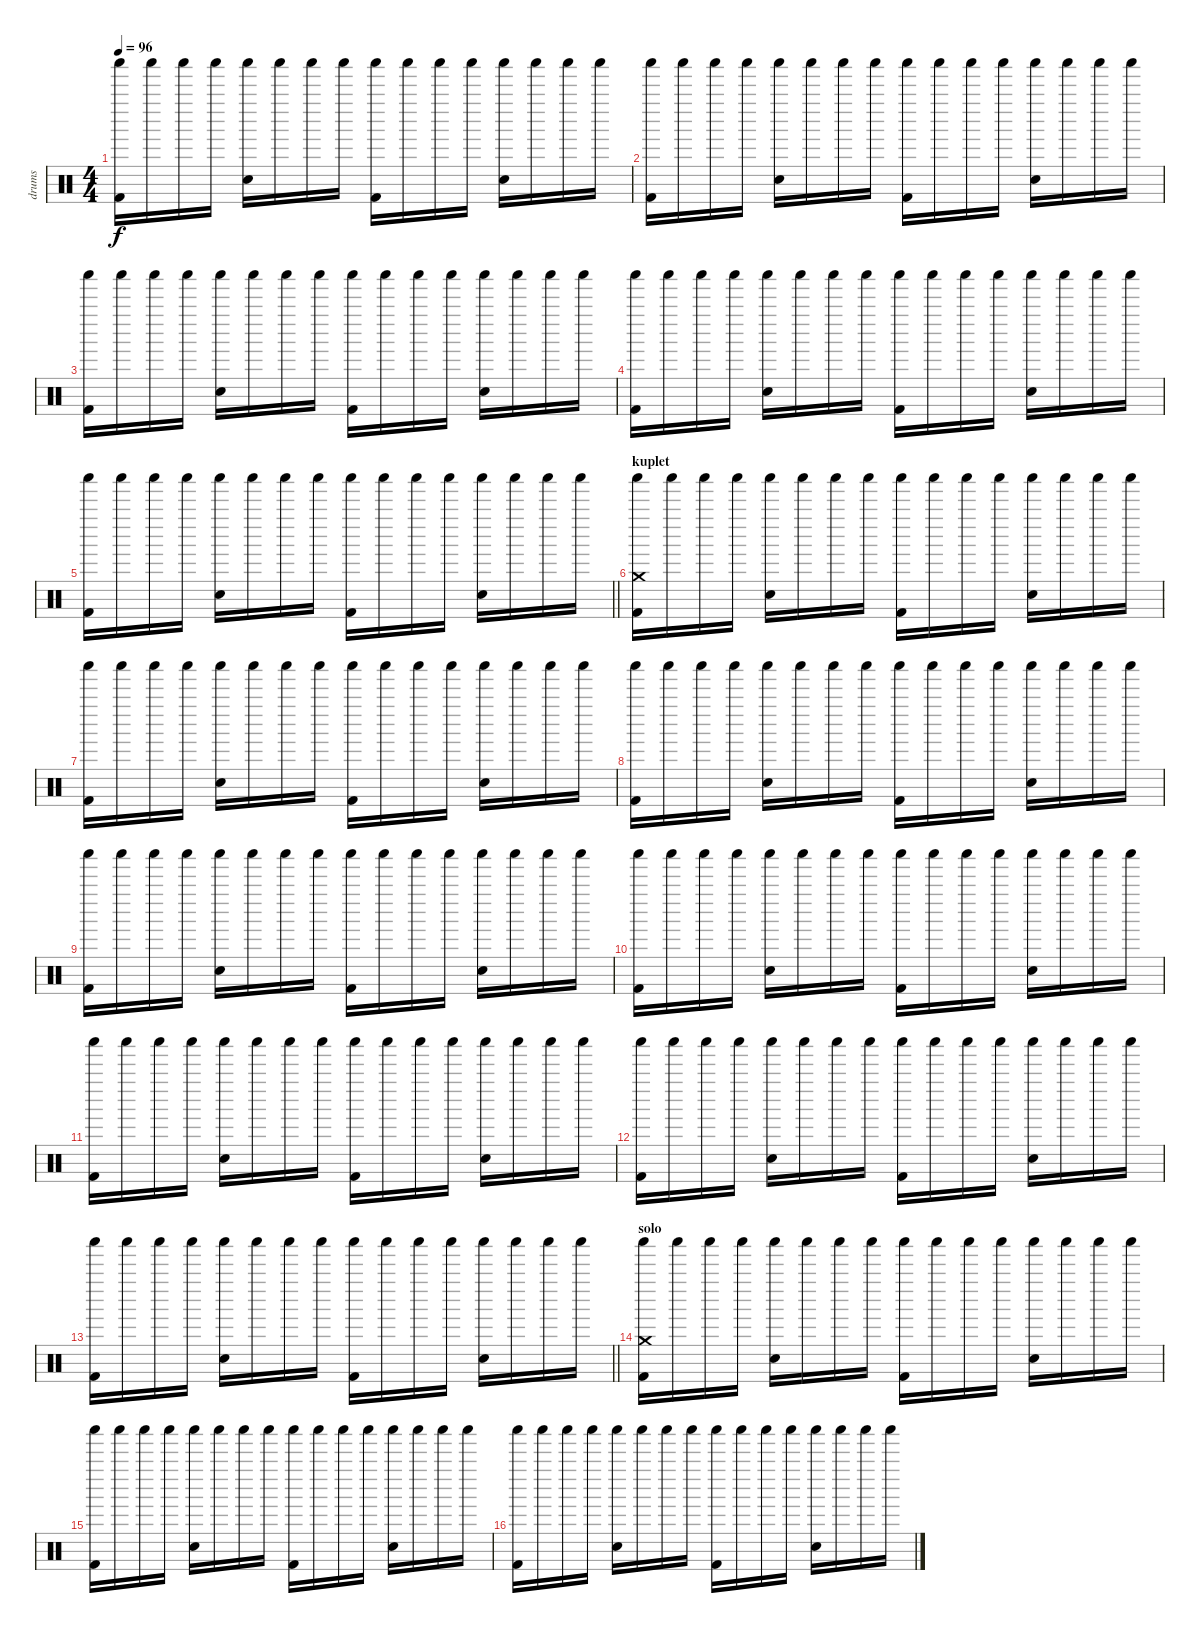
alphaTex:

\track ("drums" "drums") {instrument percussion}
\staff {score}
\articulation defaults
\ts (4 4)
\tempo 96
\clef neutral
\ks c
("Shaker (hit)" "Kick (hit) 2").16{dy f} "Shaker (hit)".16 "Shaker (hit)".16 "Shaker (hit)".16 ("Shaker (hit)" "Electric Snare (hit)").16 "Shaker (hit)".16 "Shaker (hit)".16 "Shaker (hit)".16 ("Shaker (hit)" "Kick (hit) 2").16 "Shaker (hit)".16 "Shaker (hit)".16 "Shaker (hit)".16 ("Shaker (hit)" "Electric Snare (hit)").16 "Shaker (hit)".16 "Shaker (hit)".16 "Shaker (hit)".16 |
("Shaker (hit)" "Kick (hit) 2").16 "Shaker (hit)".16 "Shaker (hit)".16 "Shaker (hit)".16 ("Shaker (hit)" "Electric Snare (hit)").16 "Shaker (hit)".16 "Shaker (hit)".16 "Shaker (hit)".16 ("Shaker (hit)" "Kick (hit) 2").16 "Shaker (hit)".16 "Shaker (hit)".16 "Shaker (hit)".16 ("Shaker (hit)" "Electric Snare (hit)").16 "Shaker (hit)".16 "Shaker (hit)".16 "Shaker (hit)".16 |
("Shaker (hit)" "Kick (hit) 2").16 "Shaker (hit)".16 "Shaker (hit)".16 "Shaker (hit)".16 ("Shaker (hit)" "Electric Snare (hit)").16 "Shaker (hit)".16 "Shaker (hit)".16 "Shaker (hit)".16 ("Shaker (hit)" "Kick (hit) 2").16 "Shaker (hit)".16 "Shaker (hit)".16 "Shaker (hit)".16 ("Shaker (hit)" "Electric Snare (hit)").16 "Shaker (hit)".16 "Shaker (hit)".16 "Shaker (hit)".16 |
("Shaker (hit)" "Kick (hit) 2").16 "Shaker (hit)".16 "Shaker (hit)".16 "Shaker (hit)".16 ("Shaker (hit)" "Electric Snare (hit)").16 "Shaker (hit)".16 "Shaker (hit)".16 "Shaker (hit)".16 ("Shaker (hit)" "Kick (hit) 2").16 "Shaker (hit)".16 "Shaker (hit)".16 "Shaker (hit)".16 ("Shaker (hit)" "Electric Snare (hit)").16 "Shaker (hit)".16 "Shaker (hit)".16 "Shaker (hit)".16 |
\barLineRight lightlight
("Shaker (hit)" "Kick (hit) 2").16 "Shaker (hit)".16 "Shaker (hit)".16 "Shaker (hit)".16 ("Shaker (hit)" "Electric Snare (hit)").16 "Shaker (hit)".16 "Shaker (hit)".16 "Shaker (hit)".16 ("Shaker (hit)" "Kick (hit) 2").16 "Shaker (hit)".16 "Shaker (hit)".16 "Shaker (hit)".16 ("Shaker (hit)" "Electric Snare (hit)").16 "Shaker (hit)".16 "Shaker (hit)".16 "Shaker (hit)".16 |
\section ("" "kuplet")
("Shaker (hit)" "Kick (hit) 2" "Crash medium (hit)").16 "Shaker (hit)".16 "Shaker (hit)".16 "Shaker (hit)".16 ("Shaker (hit)" "Electric Snare (hit)").16 "Shaker (hit)".16 "Shaker (hit)".16 "Shaker (hit)".16 ("Shaker (hit)" "Kick (hit) 2").16 "Shaker (hit)".16 "Shaker (hit)".16 "Shaker (hit)".16 ("Shaker (hit)" "Snare (hit) 2").16 "Shaker (hit)".16 "Shaker (hit)".16 "Shaker (hit)".16 |
("Shaker (hit)" "Kick (hit) 2").16 "Shaker (hit)".16 "Shaker (hit)".16 "Shaker (hit)".16 ("Shaker (hit)" "Electric Snare (hit)").16 "Shaker (hit)".16 "Shaker (hit)".16 "Shaker (hit)".16 ("Shaker (hit)" "Kick (hit) 2").16 "Shaker (hit)".16 "Shaker (hit)".16 "Shaker (hit)".16 ("Shaker (hit)" "Electric Snare (hit)").16 "Shaker (hit)".16 "Shaker (hit)".16 "Shaker (hit)".16 |
("Shaker (hit)" "Kick (hit) 2").16 "Shaker (hit)".16 "Shaker (hit)".16 "Shaker (hit)".16 ("Shaker (hit)" "Electric Snare (hit)").16 "Shaker (hit)".16 "Shaker (hit)".16 "Shaker (hit)".16 ("Shaker (hit)" "Kick (hit) 2").16 "Shaker (hit)".16 "Shaker (hit)".16 "Shaker (hit)".16 ("Shaker (hit)" "Electric Snare (hit)").16 "Shaker (hit)".16 "Shaker (hit)".16 "Shaker (hit)".16 |
("Shaker (hit)" "Kick (hit) 2").16 "Shaker (hit)".16 "Shaker (hit)".16 "Shaker (hit)".16 ("Shaker (hit)" "Electric Snare (hit)").16 "Shaker (hit)".16 "Shaker (hit)".16 "Shaker (hit)".16 ("Shaker (hit)" "Kick (hit) 2").16 "Shaker (hit)".16 "Shaker (hit)".16 "Shaker (hit)".16 ("Shaker (hit)" "Electric Snare (hit)").16 "Shaker (hit)".16 "Shaker (hit)".16 "Shaker (hit)".16 |
("Shaker (hit)" "Kick (hit) 2").16 "Shaker (hit)".16 "Shaker (hit)".16 "Shaker (hit)".16 ("Shaker (hit)" "Electric Snare (hit)").16 "Shaker (hit)".16 "Shaker (hit)".16 "Shaker (hit)".16 ("Shaker (hit)" "Kick (hit) 2").16 "Shaker (hit)".16 "Shaker (hit)".16 "Shaker (hit)".16 ("Shaker (hit)" "Electric Snare (hit)").16 "Shaker (hit)".16 "Shaker (hit)".16 "Shaker (hit)".16 |
("Shaker (hit)" "Kick (hit) 2").16 "Shaker (hit)".16 "Shaker (hit)".16 "Shaker (hit)".16 ("Shaker (hit)" "Electric Snare (hit)").16 "Shaker (hit)".16 "Shaker (hit)".16 "Shaker (hit)".16 ("Shaker (hit)" "Kick (hit) 2").16 "Shaker (hit)".16 "Shaker (hit)".16 "Shaker (hit)".16 ("Shaker (hit)" "Electric Snare (hit)").16 "Shaker (hit)".16 "Shaker (hit)".16 "Shaker (hit)".16 |
("Shaker (hit)" "Kick (hit) 2").16 "Shaker (hit)".16 "Shaker (hit)".16 "Shaker (hit)".16 ("Shaker (hit)" "Electric Snare (hit)").16 "Shaker (hit)".16 "Shaker (hit)".16 "Shaker (hit)".16 ("Shaker (hit)" "Kick (hit) 2").16 "Shaker (hit)".16 "Shaker (hit)".16 "Shaker (hit)".16 ("Shaker (hit)" "Electric Snare (hit)").16 "Shaker (hit)".16 "Shaker (hit)".16 "Shaker (hit)".16 |
\barLineRight lightlight
("Shaker (hit)" "Kick (hit) 2").16 "Shaker (hit)".16 "Shaker (hit)".16 "Shaker (hit)".16 ("Shaker (hit)" "Electric Snare (hit)").16 "Shaker (hit)".16 "Shaker (hit)".16 "Shaker (hit)".16 ("Shaker (hit)" "Kick (hit) 2").16 "Shaker (hit)".16 "Shaker (hit)".16 "Shaker (hit)".16 ("Shaker (hit)" "Electric Snare (hit)").16 "Shaker (hit)".16 "Shaker (hit)".16 "Shaker (hit)".16 |
\section ("" "solo")
("Shaker (hit)" "Kick (hit) 2" "Crash medium (hit)").16 "Shaker (hit)".16 "Shaker (hit)".16 "Shaker (hit)".16 ("Shaker (hit)" "Electric Snare (hit)").16 "Shaker (hit)".16 "Shaker (hit)".16 "Shaker (hit)".16 ("Shaker (hit)" "Kick (hit) 2").16 "Shaker (hit)".16 "Shaker (hit)".16 "Shaker (hit)".16 ("Shaker (hit)" "Snare (hit) 2").16 "Shaker (hit)".16 "Shaker (hit)".16 "Shaker (hit)".16 |
("Shaker (hit)" "Kick (hit) 2").16 "Shaker (hit)".16 "Shaker (hit)".16 "Shaker (hit)".16 ("Shaker (hit)" "Electric Snare (hit)").16 "Shaker (hit)".16 "Shaker (hit)".16 "Shaker (hit)".16 ("Shaker (hit)" "Kick (hit) 2").16 "Shaker (hit)".16 "Shaker (hit)".16 "Shaker (hit)".16 ("Shaker (hit)" "Electric Snare (hit)").16 "Shaker (hit)".16 "Shaker (hit)".16 "Shaker (hit)".16 |
("Shaker (hit)" "Kick (hit) 2").16 "Shaker (hit)".16 "Shaker (hit)".16 "Shaker (hit)".16 ("Shaker (hit)" "Electric Snare (hit)").16 "Shaker (hit)".16 "Shaker (hit)".16 "Shaker (hit)".16 ("Shaker (hit)" "Kick (hit) 2").16 "Shaker (hit)".16 "Shaker (hit)".16 "Shaker (hit)".16 ("Shaker (hit)" "Electric Snare (hit)").16 "Shaker (hit)".16 "Shaker (hit)".16 "Shaker (hit)".16
